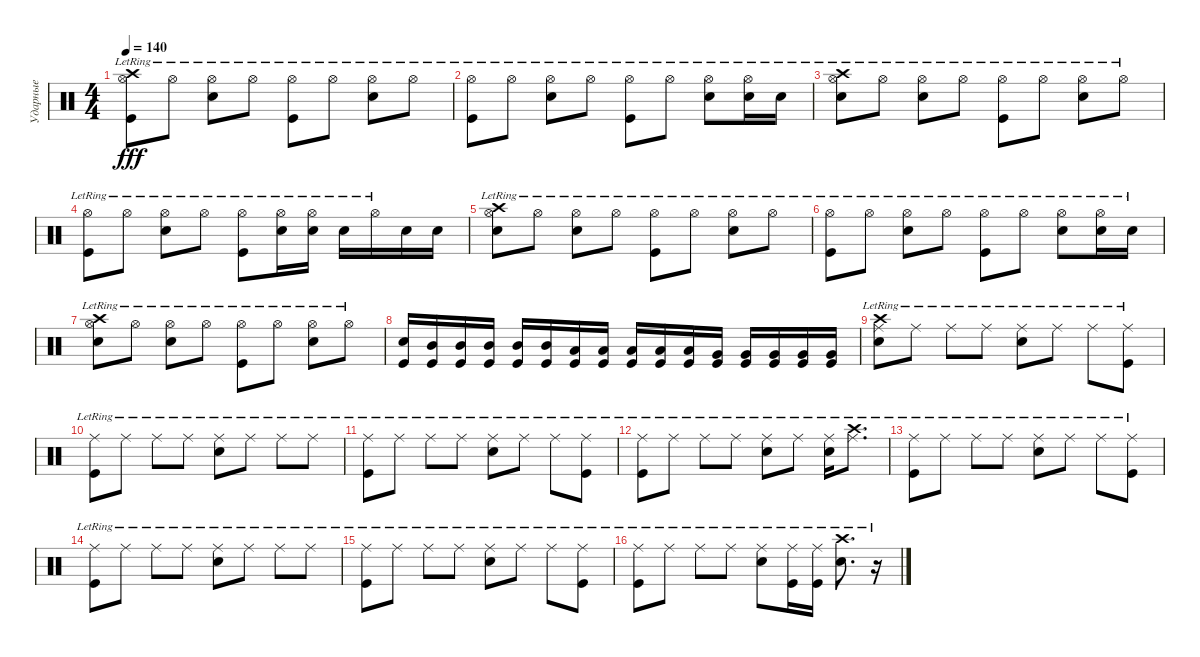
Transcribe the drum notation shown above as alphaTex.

\track ("Ударные" "Ударные") {instrument percussion}
\staff {score}
\articulation defaults
\ts (4 4)
\tempo 140
\clef neutral
\ks c
("Crash high (hit)"{lr} "Kick (hit)"{lr} "Hi-Hat (open)"{lr}).8{dy fff} "Hi-Hat (open)"{lr}.8 ("Electric Snare (hit)"{lr} "Hi-Hat (open)"{lr}).8 "Hi-Hat (open)"{lr}.8 ("Kick (hit)"{lr} "Hi-Hat (open)"{lr}).8 "Hi-Hat (open)"{lr}.8 ("Electric Snare (hit)"{lr} "Hi-Hat (open)"{lr}).8 "Hi-Hat (open)"{lr}.8 |
("Kick (hit)"{lr} "Hi-Hat (open)"{lr}).8 "Hi-Hat (open)"{lr}.8 ("Electric Snare (hit)"{lr} "Hi-Hat (open)"{lr}).8 "Hi-Hat (open)"{lr}.8 ("Kick (hit)"{lr} "Hi-Hat (open)"{lr}).8 "Hi-Hat (open)"{lr}.8 ("Electric Snare (hit)"{lr} "Hi-Hat (open)"{lr}).8 ("Electric Snare (hit)"{lr} "Hi-Hat (open)"{lr}).16 "Electric Snare (hit)"{lr}.16 |
("Crash high (hit)"{lr} "Electric Snare (hit)"{lr} "Hi-Hat (open)"{lr}).8 "Hi-Hat (open)"{lr}.8 ("Electric Snare (hit)"{lr} "Hi-Hat (open)"{lr}).8 "Hi-Hat (open)"{lr}.8 ("Kick (hit)"{lr} "Hi-Hat (open)"{lr}).8 "Hi-Hat (open)"{lr}.8 ("Electric Snare (hit)"{lr} "Hi-Hat (open)"{lr}).8 "Hi-Hat (open)"{lr}.8 |
("Kick (hit)"{lr} "Hi-Hat (open)"{lr}).8 "Hi-Hat (open)"{lr}.8 ("Electric Snare (hit)"{lr} "Hi-Hat (open)"{lr}).8 "Hi-Hat (open)"{lr}.8 ("Kick (hit)"{lr} "Hi-Hat (open)"{lr}).8 ("Electric Snare (hit)" "Hi-Hat (open)"{lr}).16 ("Electric Snare (hit)"{lr} "Hi-Hat (open)"{lr}).16 "Electric Snare (hit)"{lr}.16 "Hi-Hat (open)"{lr}.16 "Electric Snare (hit)".16 "Electric Snare (hit)".16 |
("Crash high (hit)"{lr} "Electric Snare (hit)"{lr} "Hi-Hat (open)"{lr}).8 "Hi-Hat (open)"{lr}.8 ("Electric Snare (hit)"{lr} "Hi-Hat (open)"{lr}).8 "Hi-Hat (open)"{lr}.8 ("Kick (hit)"{lr} "Hi-Hat (open)"{lr}).8 "Hi-Hat (open)"{lr}.8 ("Electric Snare (hit)"{lr} "Hi-Hat (open)"{lr}).8 "Hi-Hat (open)"{lr}.8 |
("Kick (hit)"{lr} "Hi-Hat (open)"{lr}).8 "Hi-Hat (open)"{lr}.8 ("Electric Snare (hit)"{lr} "Hi-Hat (open)"{lr}).8 "Hi-Hat (open)"{lr}.8 ("Kick (hit)"{lr} "Hi-Hat (open)"{lr}).8 "Hi-Hat (open)"{lr}.8 ("Electric Snare (hit)"{lr} "Hi-Hat (open)"{lr}).8 ("Electric Snare (hit)"{lr} "Hi-Hat (open)"{lr}).16 "Electric Snare (hit)"{lr}.16 |
("Crash high (hit)"{lr} "Electric Snare (hit)"{lr} "Hi-Hat (open)"{lr}).8 "Hi-Hat (open)"{lr}.8 ("Electric Snare (hit)"{lr} "Hi-Hat (open)"{lr}).8 "Hi-Hat (open)"{lr}.8 ("Kick (hit)"{lr} "Hi-Hat (open)"{lr}).8 "Hi-Hat (open)"{lr}.8 ("Electric Snare (hit)"{lr} "Hi-Hat (open)"{lr}).8 "Hi-Hat (open)"{lr}.8 |
("Electric Snare (hit)" "Kick (hit)").16 ("Mid Tom (hit)" "Kick (hit)").16 ("Mid Tom (hit)" "Kick (hit)").16 ("Mid Tom (hit)" "Kick (hit)").16 ("Mid Tom (hit)" "Kick (hit)").16 ("Mid Tom (hit)" "Kick (hit)").16 ("Low Tom (hit)" "Kick (hit)").16 ("Low Tom (hit)" "Kick (hit)").16 ("Low Tom (hit)" "Kick (hit)").16 ("Low Tom (hit)" "Kick (hit)").16 ("Low Tom (hit)" "Kick (hit)").16 ("Very Low Tom (hit)" "Kick (hit)").16 ("Very Low Tom (hit)" "Kick (hit)").16 ("Very Low Tom (hit)" "Kick (hit)").16 ("Very Low Tom (hit)" "Kick (hit)").16 ("Very Low Tom (hit)" "Kick (hit)").16 |
("Ride (middle)"{lr} "Electric Snare (hit)"{lr} "Crash high (hit)").8 "Ride (middle)"{lr}.8 "Ride (middle)"{lr}.8 "Ride (middle)"{lr}.8 ("Ride (middle)"{lr} "Electric Snare (hit)"{lr}).8 "Ride (middle)"{lr}.8 "Ride (middle)"{lr}.8 ("Ride (middle)"{lr} "Kick (hit)"{lr}).8 |
("Ride (middle)"{lr} "Kick (hit)"{lr}).8 "Ride (middle)"{lr}.8 "Ride (middle)"{lr}.8 "Ride (middle)"{lr}.8 ("Ride (middle)"{lr} "Electric Snare (hit)"{lr}).8 "Ride (middle)"{lr}.8 "Ride (middle)"{lr}.8 "Ride (middle)"{lr}.8 |
("Ride (middle)"{lr} "Kick (hit)"{lr}).8 "Ride (middle)"{lr}.8 "Ride (middle)"{lr}.8 "Ride (middle)"{lr}.8 ("Ride (middle)"{lr} "Electric Snare (hit)"{lr}).8 "Ride (middle)"{lr}.8 "Ride (middle)"{lr}.8 ("Ride (middle)"{lr} "Kick (hit)"{lr}).8 |
("Ride (middle)"{lr} "Kick (hit)"{lr}).8 "Ride (middle)"{lr}.8 "Ride (middle)"{lr}.8 "Ride (middle)"{lr}.8 ("Ride (middle)"{lr} "Electric Snare (hit)"{lr}).8 "Ride (middle)"{lr}.8 ("Ride (middle)"{lr} "Electric Snare (hit)"{lr}).16 ("Crash high (hit)"{lr} "Ride (middle)"{lr}).8{d} |
("Ride (middle)"{lr} "Kick (hit)"{lr}).8 "Ride (middle)"{lr}.8 "Ride (middle)"{lr}.8 "Ride (middle)"{lr}.8 ("Ride (middle)"{lr} "Electric Snare (hit)"{lr}).8 "Ride (middle)"{lr}.8 "Ride (middle)"{lr}.8 ("Ride (middle)"{lr} "Kick (hit)"{lr}).8 |
("Ride (middle)"{lr} "Kick (hit)"{lr}).8 "Ride (middle)"{lr}.8 "Ride (middle)"{lr}.8 "Ride (middle)"{lr}.8 ("Ride (middle)"{lr} "Electric Snare (hit)"{lr}).8 "Ride (middle)"{lr}.8 "Ride (middle)"{lr}.8 "Ride (middle)"{lr}.8 |
("Ride (middle)"{lr} "Kick (hit)"{lr}).8 "Ride (middle)"{lr}.8 "Ride (middle)"{lr}.8 "Ride (middle)"{lr}.8 ("Ride (middle)"{lr} "Electric Snare (hit)"{lr}).8 "Ride (middle)"{lr}.8 "Ride (middle)"{lr}.8 ("Ride (middle)"{lr} "Kick (hit)"{lr}).8 |
("Ride (middle)"{lr} "Kick (hit)"{lr}).8 "Ride (middle)"{lr}.8 "Ride (middle)"{lr}.8 "Ride (middle)"{lr}.8 ("Ride (middle)"{lr} "Electric Snare (hit)"{lr}).8 ("Ride (middle)"{lr} "Kick (hit)").16 ("Ride (middle)"{lr} "Kick (hit)"{lr}).16 ("Crash high (hit)"{lr} "Electric Snare (hit)").8{d} r.16
